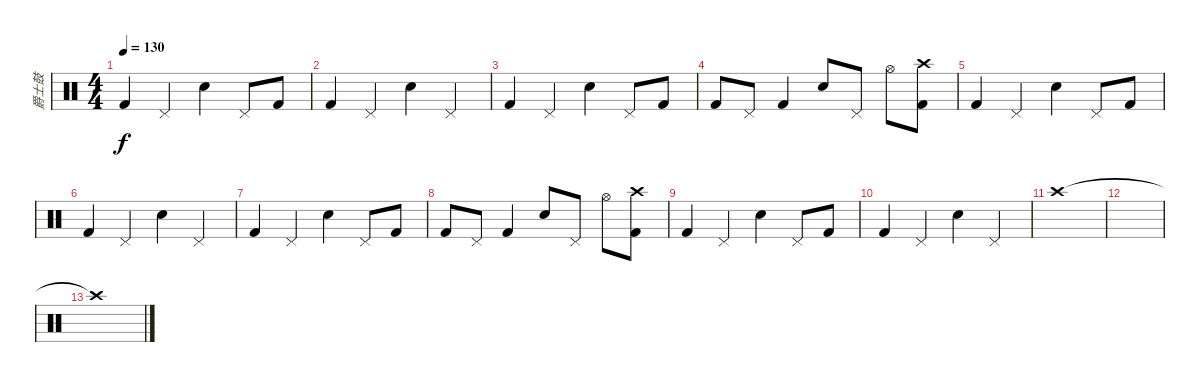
\track ("爵士鼓" "爵士鼓") {instrument percussion}
\staff {score}
\articulation defaults
\ts (4 4)
\tempo 130
\clef neutral
\ks c "Kick (hit) 2".4{dy f} "Pedal Hi-Hat (hit)".4 "Snare (hit) 2".4 "Pedal Hi-Hat (hit)".8 "Kick (hit) 2".8
|
"Kick (hit) 2".4 "Pedal Hi-Hat (hit)".4 "Snare (hit) 2".4 "Pedal Hi-Hat (hit)".4 |
"Kick (hit) 2".4 "Pedal Hi-Hat (hit)".4 "Snare (hit) 2".4 "Pedal Hi-Hat (hit)".8 "Kick (hit) 2".8 |
"Kick (hit) 2".8 "Pedal Hi-Hat (hit)".8 "Kick (hit) 2".4 "Snare (hit) 2".8 "Pedal Hi-Hat (hit)".8 "Hi-Hat (open)".8 ("Kick (hit) 2" "Crash high (hit)").8 |
"Kick (hit) 2".4 "Pedal Hi-Hat (hit)".4 "Snare (hit) 2".4 "Pedal Hi-Hat (hit)".8 "Kick (hit) 2".8 |
"Kick (hit) 2".4 "Pedal Hi-Hat (hit)".4 "Snare (hit) 2".4 "Pedal Hi-Hat (hit)".4 |
"Kick (hit) 2".4 "Pedal Hi-Hat (hit)".4 "Snare (hit) 2".4 "Pedal Hi-Hat (hit)".8 "Kick (hit) 2".8 |
"Kick (hit) 2".8 "Pedal Hi-Hat (hit)".8 "Kick (hit) 2".4 "Snare (hit) 2".8 "Pedal Hi-Hat (hit)".8 "Hi-Hat (open)".8 ("Kick (hit) 2" "Crash high (hit)").8 |
"Kick (hit) 2".4 "Pedal Hi-Hat (hit)".4 "Snare (hit) 2".4 "Pedal Hi-Hat (hit)".8 "Kick (hit) 2".8 |
"Kick (hit) 2".4 "Pedal Hi-Hat (hit)".4 "Snare (hit) 2".4 "Pedal Hi-Hat (hit)".4 |
"Crash high (hit)".1 |
|
"Crash high (hit)"{t}.1
